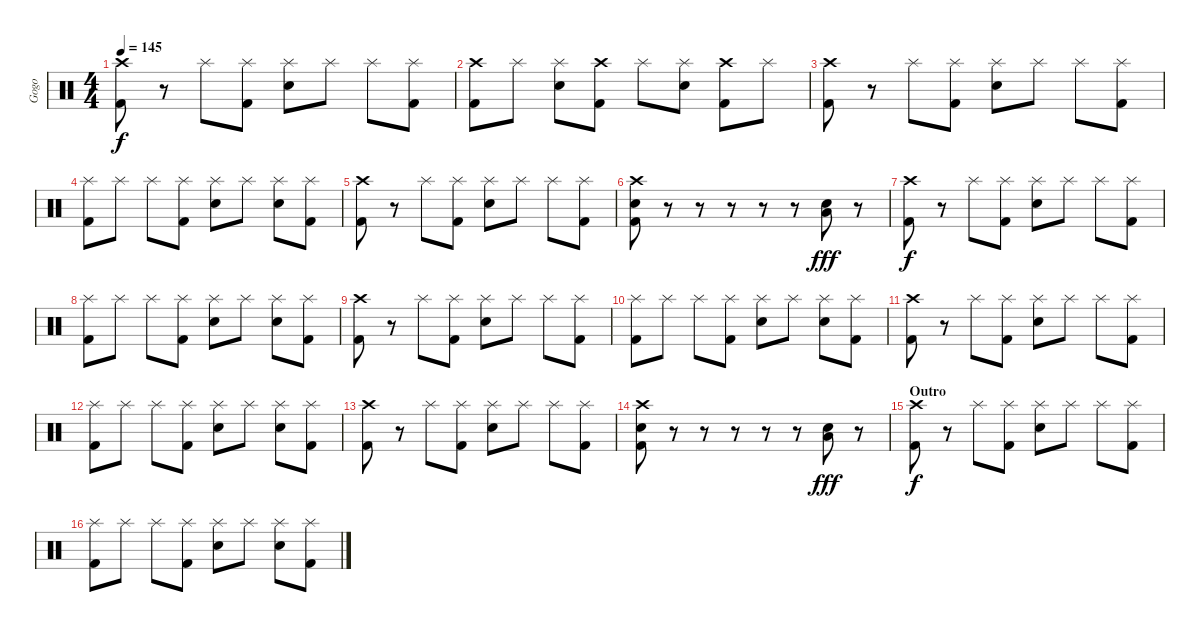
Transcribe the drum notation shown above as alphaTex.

\track ("Gogo" "Gogo") {instrument percussion}
\staff {score}
\articulation defaults
\ts (4 4)
\tempo 145
\clef neutral
\ks c
("Crash high (hit)" "Kick (hit) 2").8{dy f} r.8 "Splash (hit)".8 ("Splash (hit)" "Kick (hit) 2").8 ("Splash (hit)" "Electric Snare (hit)").8 "Splash (hit)".8 "Splash (hit)".8 ("Splash (hit)" "Kick (hit) 2").8 |
("Crash high (hit)" "Kick (hit) 2").8 "Splash (hit)".8 ("Splash (hit)" "Electric Snare (hit)").8 ("Crash high (hit)" "Kick (hit) 2").8 "Splash (hit)".8 ("Splash (hit)" "Electric Snare (hit)").8 ("Crash high (hit)" "Kick (hit) 2").8 "Splash (hit)".8 |
("Crash high (hit)" "Kick (hit) 2").8 r.8 "Splash (hit)".8 ("Splash (hit)" "Kick (hit) 2").8 ("Splash (hit)" "Electric Snare (hit)").8 "Splash (hit)".8 "Splash (hit)".8 ("Splash (hit)" "Kick (hit) 2").8 |
("Splash (hit)" "Kick (hit) 2").8 "Splash (hit)".8 "Splash (hit)".8 ("Splash (hit)" "Kick (hit) 2").8 ("Splash (hit)" "Electric Snare (hit)").8 "Splash (hit)".8 ("Splash (hit)" "Electric Snare (hit)").8 ("Splash (hit)" "Kick (hit) 2").8 |
("Crash high (hit)" "Kick (hit) 2").8 r.8 "Splash (hit)".8 ("Splash (hit)" "Kick (hit) 2").8 ("Splash (hit)" "Electric Snare (hit)").8 "Splash (hit)".8 "Splash (hit)".8 ("Splash (hit)" "Kick (hit) 2").8 |
("Crash high (hit)" "Electric Snare (hit)" "Kick (hit) 2").8 r.8 r.8 r.8 r.8 r.8 ("Electric Snare (hit)" "Low Floor Tom (hit)").8{dy fff} r.8 |
("Crash high (hit)" "Kick (hit) 2").8{dy f} r.8 "Splash (hit)".8 ("Splash (hit)" "Kick (hit) 2").8 ("Splash (hit)" "Electric Snare (hit)").8 "Splash (hit)".8 "Splash (hit)".8 ("Splash (hit)" "Kick (hit) 2").8 |
("Splash (hit)" "Kick (hit) 2").8 "Splash (hit)".8 "Splash (hit)".8 ("Splash (hit)" "Kick (hit) 2").8 ("Splash (hit)" "Electric Snare (hit)").8 "Splash (hit)".8 ("Splash (hit)" "Electric Snare (hit)").8 ("Splash (hit)" "Kick (hit) 2").8 |
("Crash high (hit)" "Kick (hit) 2").8 r.8 "Splash (hit)".8 ("Splash (hit)" "Kick (hit) 2").8 ("Splash (hit)" "Electric Snare (hit)").8 "Splash (hit)".8 "Splash (hit)".8 ("Splash (hit)" "Kick (hit) 2").8 |
("Splash (hit)" "Kick (hit) 2").8 "Splash (hit)".8 "Splash (hit)".8 ("Splash (hit)" "Kick (hit) 2").8 ("Splash (hit)" "Electric Snare (hit)").8 "Splash (hit)".8 ("Splash (hit)" "Electric Snare (hit)").8 ("Splash (hit)" "Kick (hit) 2").8 |
("Crash high (hit)" "Kick (hit) 2").8 r.8 "Splash (hit)".8 ("Splash (hit)" "Kick (hit) 2").8 ("Splash (hit)" "Electric Snare (hit)").8 "Splash (hit)".8 "Splash (hit)".8 ("Splash (hit)" "Kick (hit) 2").8 |
("Splash (hit)" "Kick (hit) 2").8 "Splash (hit)".8 "Splash (hit)".8 ("Splash (hit)" "Kick (hit) 2").8 ("Splash (hit)" "Electric Snare (hit)").8 "Splash (hit)".8 ("Splash (hit)" "Electric Snare (hit)").8 ("Splash (hit)" "Kick (hit) 2").8 |
("Crash high (hit)" "Kick (hit) 2").8 r.8 "Splash (hit)".8 ("Splash (hit)" "Kick (hit) 2").8 ("Splash (hit)" "Electric Snare (hit)").8 "Splash (hit)".8 "Splash (hit)".8 ("Splash (hit)" "Kick (hit) 2").8 |
("Crash high (hit)" "Electric Snare (hit)" "Kick (hit) 2").8 r.8 r.8 r.8 r.8 r.8 ("Electric Snare (hit)" "Low Floor Tom (hit)").8{dy fff} r.8 |
\section ("" "Outro")
("Crash high (hit)" "Kick (hit) 2").8{dy f} r.8 "Splash (hit)".8 ("Splash (hit)" "Kick (hit) 2").8 ("Splash (hit)" "Electric Snare (hit)").8 "Splash (hit)".8 "Splash (hit)".8 ("Splash (hit)" "Kick (hit) 2").8 |
("Splash (hit)" "Kick (hit) 2").8 "Splash (hit)".8 "Splash (hit)".8 ("Splash (hit)" "Kick (hit) 2").8 ("Splash (hit)" "Electric Snare (hit)").8 "Splash (hit)".8 ("Splash (hit)" "Electric Snare (hit)").8 ("Splash (hit)" "Kick (hit) 2").8
